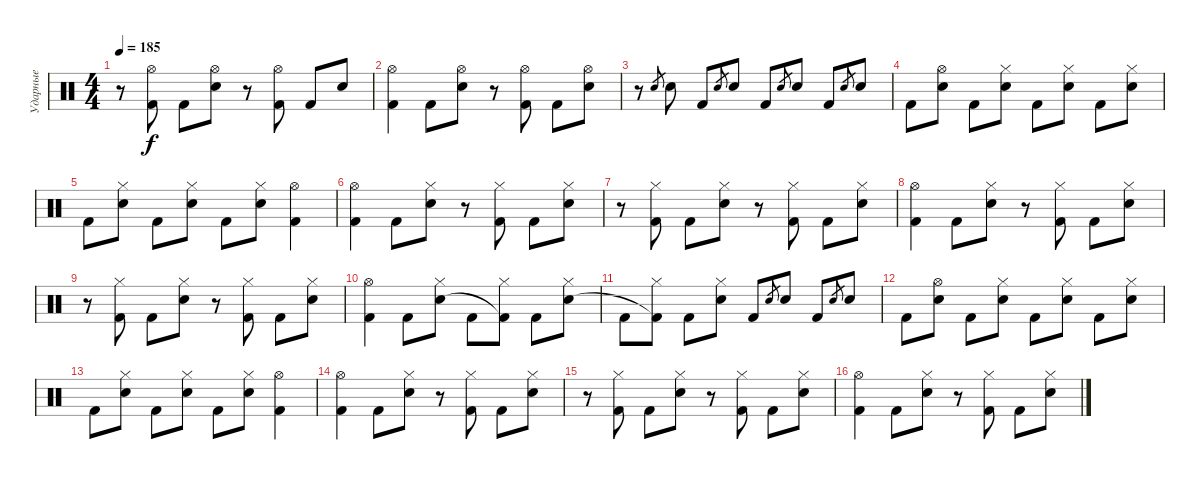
\track ("Ударные" "Ударные") {instrument percussion}
\staff {score}
\articulation defaults
\ts (4 4)
\tempo 185
\clef neutral
\ks c
r.8{dy f} ("Hi-Hat (open)" "Kick (hit) 2").8 "Kick (hit) 2".8 ("Hi-Hat (open)" "Electric Snare (hit)").8 r.8 ("Hi-Hat (open)" "Kick (hit) 2").8 "Kick (hit) 2".8 "Electric Snare (hit)".8 |
("Hi-Hat (open)" "Kick (hit) 2").4 "Kick (hit) 2".8 ("Hi-Hat (open)" "Electric Snare (hit)").8 r.8 ("Hi-Hat (open)" "Kick (hit) 2").8 "Kick (hit) 2".8 ("Hi-Hat (open)" "Electric Snare (hit)").8 |
r.8 "Electric Snare (hit)".8{gr} "Electric Snare (hit)".8 "Kick (hit) 2".8 "Electric Snare (hit)".8{gr} "Electric Snare (hit)".8 "Kick (hit) 2".8 "Electric Snare (hit)".8{gr} "Electric Snare (hit)".8 "Kick (hit) 2".8 "Electric Snare (hit)".8{gr} "Electric Snare (hit)".8 |
"Kick (hit) 2".8 ("Hi-Hat (open)" "Electric Snare (hit)").8 "Kick (hit) 2".8 ("Hi-Hat (closed)" "Electric Snare (hit)").8 "Kick (hit) 2".8 ("Hi-Hat (closed)" "Electric Snare (hit)").8 "Kick (hit) 2".8 ("Hi-Hat (closed)" "Electric Snare (hit)").8 |
"Kick (hit) 2".8 ("Hi-Hat (closed)" "Electric Snare (hit)").8 "Kick (hit) 2".8 ("Hi-Hat (closed)" "Electric Snare (hit)").8 "Kick (hit) 2".8 ("Hi-Hat (closed)" "Electric Snare (hit)").8 ("Hi-Hat (open)" "Kick (hit) 2").4 |
("Hi-Hat (open)" "Kick (hit) 2").4 "Kick (hit) 2".8 ("Hi-Hat (closed)" "Electric Snare (hit)").8 r.8 ("Hi-Hat (closed)" "Kick (hit) 2").8 "Kick (hit) 2".8 ("Hi-Hat (closed)" "Electric Snare (hit)").8 |
r.8 ("Hi-Hat (closed)" "Kick (hit) 2").8 "Kick (hit) 2".8 ("Hi-Hat (closed)" "Electric Snare (hit)").8 r.8 ("Hi-Hat (closed)" "Kick (hit) 2").8 "Kick (hit) 2".8 ("Hi-Hat (closed)" "Electric Snare (hit)").8 |
("Hi-Hat (open)" "Kick (hit) 2").4 "Kick (hit) 2".8 ("Hi-Hat (closed)" "Electric Snare (hit)").8 r.8 ("Hi-Hat (closed)" "Kick (hit) 2").8 "Kick (hit) 2".8 ("Hi-Hat (closed)" "Electric Snare (hit)").8 |
r.8 ("Hi-Hat (closed)" "Kick (hit) 2").8 "Kick (hit) 2".8 ("Hi-Hat (closed)" "Electric Snare (hit)").8 r.8 ("Hi-Hat (closed)" "Kick (hit) 2").8 "Kick (hit) 2".8 ("Hi-Hat (closed)" "Electric Snare (hit)").8 |
("Hi-Hat (open)" "Kick (hit) 2").4 "Kick (hit) 2".8 ("Hi-Hat (closed)" "Electric Snare (hit)").8 "Kick (hit) 2".8 ("Hi-Hat (closed)" "Kick (hit) 2"{t}).8 "Kick (hit) 2".8 ("Hi-Hat (closed)" "Electric Snare (hit)").8 |
"Kick (hit) 2".8 ("Hi-Hat (closed)" "Kick (hit) 2"{t}).8 "Kick (hit) 2".8 ("Hi-Hat (closed)" "Electric Snare (hit)").8 "Kick (hit) 2".8 "Electric Snare (hit)".8{gr} "Electric Snare (hit)".8 "Kick (hit) 2".8 "Electric Snare (hit)".8{gr} "Electric Snare (hit)".8 |
"Kick (hit) 2".8 ("Hi-Hat (open)" "Electric Snare (hit)").8 "Kick (hit) 2".8 ("Hi-Hat (closed)" "Electric Snare (hit)").8 "Kick (hit) 2".8 ("Hi-Hat (closed)" "Electric Snare (hit)").8 "Kick (hit) 2".8 ("Hi-Hat (closed)" "Electric Snare (hit)").8 |
"Kick (hit) 2".8 ("Hi-Hat (closed)" "Electric Snare (hit)").8 "Kick (hit) 2".8 ("Hi-Hat (closed)" "Electric Snare (hit)").8 "Kick (hit) 2".8 ("Hi-Hat (closed)" "Electric Snare (hit)").8 ("Hi-Hat (open)" "Kick (hit) 2").4 |
("Hi-Hat (open)" "Kick (hit) 2").4 "Kick (hit) 2".8 ("Hi-Hat (closed)" "Electric Snare (hit)").8 r.8 ("Hi-Hat (closed)" "Kick (hit) 2").8 "Kick (hit) 2".8 ("Hi-Hat (closed)" "Electric Snare (hit)").8 |
r.8 ("Hi-Hat (closed)" "Kick (hit) 2").8 "Kick (hit) 2".8 ("Hi-Hat (closed)" "Electric Snare (hit)").8 r.8 ("Hi-Hat (closed)" "Kick (hit) 2").8 "Kick (hit) 2".8 ("Hi-Hat (closed)" "Electric Snare (hit)").8 |
("Hi-Hat (open)" "Kick (hit) 2").4 "Kick (hit) 2".8 ("Hi-Hat (closed)" "Electric Snare (hit)").8 r.8 ("Hi-Hat (closed)" "Kick (hit) 2").8 "Kick (hit) 2".8 ("Hi-Hat (closed)" "Electric Snare (hit)").8
